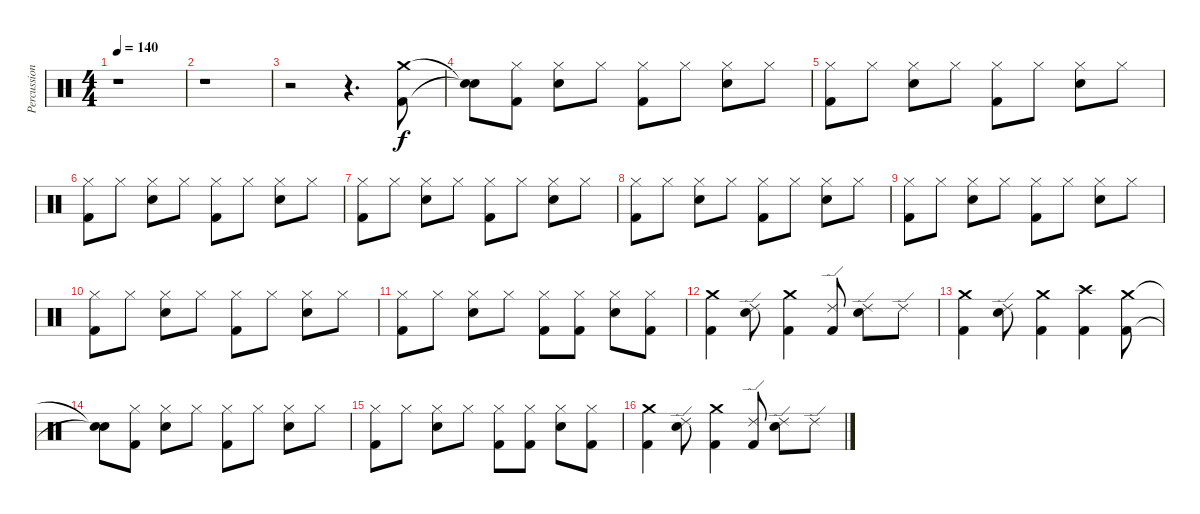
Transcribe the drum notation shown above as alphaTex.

\track ("Percussion" "Percussion") {instrument percussion}
\staff {score}
\articulation defaults
\ts (4 4)
\tempo 140
\clef neutral
\ks c
r.1{dy f} |
r.1 |
r.2 r.4{d} ("Crash medium (hit)" "Kick (hit) 2").8 |
("Snare (hit)"{t} "Snare (hit)"{t}).8 ("Hi-Hat (closed)" "Kick (hit) 2").8 ("Hi-Hat (closed)" "Electric Snare (hit)").8 "Hi-Hat (closed)".8 ("Hi-Hat (closed)" "Kick (hit) 2").8 "Hi-Hat (closed)".8 ("Hi-Hat (closed)" "Electric Snare (hit)").8 "Hi-Hat (closed)".8 |
("Hi-Hat (closed)" "Kick (hit) 2").8 "Hi-Hat (closed)".8 ("Hi-Hat (closed)" "Electric Snare (hit)").8 "Hi-Hat (closed)".8 ("Hi-Hat (closed)" "Kick (hit) 2").8 "Hi-Hat (closed)".8 ("Hi-Hat (closed)" "Electric Snare (hit)").8 "Hi-Hat (closed)".8 |
("Hi-Hat (closed)" "Kick (hit) 2").8 "Hi-Hat (closed)".8 ("Hi-Hat (closed)" "Electric Snare (hit)").8 "Hi-Hat (closed)".8 ("Hi-Hat (closed)" "Kick (hit) 2").8 "Hi-Hat (closed)".8 ("Hi-Hat (closed)" "Electric Snare (hit)").8 "Hi-Hat (closed)".8 |
("Hi-Hat (closed)" "Kick (hit) 2").8 "Hi-Hat (closed)".8 ("Hi-Hat (closed)" "Electric Snare (hit)").8 "Hi-Hat (closed)".8 ("Hi-Hat (closed)" "Kick (hit) 2").8 "Hi-Hat (closed)".8 ("Hi-Hat (closed)" "Electric Snare (hit)").8 "Hi-Hat (closed)".8 |
("Hi-Hat (closed)" "Kick (hit) 2").8 "Hi-Hat (closed)".8 ("Hi-Hat (closed)" "Electric Snare (hit)").8 "Hi-Hat (closed)".8 ("Hi-Hat (closed)" "Kick (hit) 2").8 "Hi-Hat (closed)".8 ("Hi-Hat (closed)" "Electric Snare (hit)").8 "Hi-Hat (closed)".8 |
("Hi-Hat (closed)" "Kick (hit) 2").8 "Hi-Hat (closed)".8 ("Hi-Hat (closed)" "Electric Snare (hit)").8 "Hi-Hat (closed)".8 ("Hi-Hat (closed)" "Kick (hit) 2").8 "Hi-Hat (closed)".8 ("Hi-Hat (closed)" "Electric Snare (hit)").8 "Hi-Hat (closed)".8 |
("Hi-Hat (closed)" "Kick (hit) 2").8 "Hi-Hat (closed)".8 ("Hi-Hat (closed)" "Electric Snare (hit)").8 "Hi-Hat (closed)".8 ("Hi-Hat (closed)" "Kick (hit) 2").8 "Hi-Hat (closed)".8 ("Hi-Hat (closed)" "Electric Snare (hit)").8 "Hi-Hat (closed)".8 |
("Hi-Hat (closed)" "Kick (hit) 2").8 "Hi-Hat (closed)".8 ("Hi-Hat (closed)" "Electric Snare (hit)").8 "Hi-Hat (closed)".8 ("Hi-Hat (closed)" "Kick (hit) 2").8 ("Hi-Hat (closed)" "Kick (hit) 2").8 ("Hi-Hat (closed)" "Electric Snare (hit)").8 ("Hi-Hat (closed)" "Kick (hit) 2").8 |
("Crash medium (hit)" "Kick (hit) 2").4 ("Ride (edge) 2" "Electric Snare (hit)").8 ("Crash medium (hit)" "Kick (hit) 2").4 ("Ride (edge) 2" "Kick (hit) 2").8 ("Ride (edge) 2" "Electric Snare (hit)").8 "Ride (edge) 2".8 |
("Crash medium (hit)" "Kick (hit) 2").4 ("Ride (edge) 2" "Electric Snare (hit)").8 ("Crash medium (hit)" "Kick (hit) 2").4 ("Crash high (hit)" "Kick (hit) 2").4 ("Crash medium (hit)" "Kick (hit) 2").8 |
("Snare (hit)"{t} "Snare (hit)"{t}).8 ("Hi-Hat (closed)" "Kick (hit) 2").8 ("Hi-Hat (closed)" "Electric Snare (hit)").8 "Hi-Hat (closed)".8 ("Hi-Hat (closed)" "Kick (hit) 2").8 "Hi-Hat (closed)".8 ("Hi-Hat (closed)" "Electric Snare (hit)").8 "Hi-Hat (closed)".8 |
("Hi-Hat (closed)" "Kick (hit) 2").8 "Hi-Hat (closed)".8 ("Hi-Hat (closed)" "Electric Snare (hit)").8 "Hi-Hat (closed)".8 ("Hi-Hat (closed)" "Kick (hit) 2").8 ("Hi-Hat (closed)" "Kick (hit) 2").8 ("Hi-Hat (closed)" "Electric Snare (hit)").8 ("Hi-Hat (closed)" "Kick (hit) 2").8 |
("Crash medium (hit)" "Kick (hit) 2").4 ("Ride (edge) 2" "Electric Snare (hit)").8 ("Crash medium (hit)" "Kick (hit) 2").4 ("Ride (edge) 2" "Kick (hit) 2").8 ("Ride (edge) 2" "Electric Snare (hit)").8 "Ride (edge) 2".8
